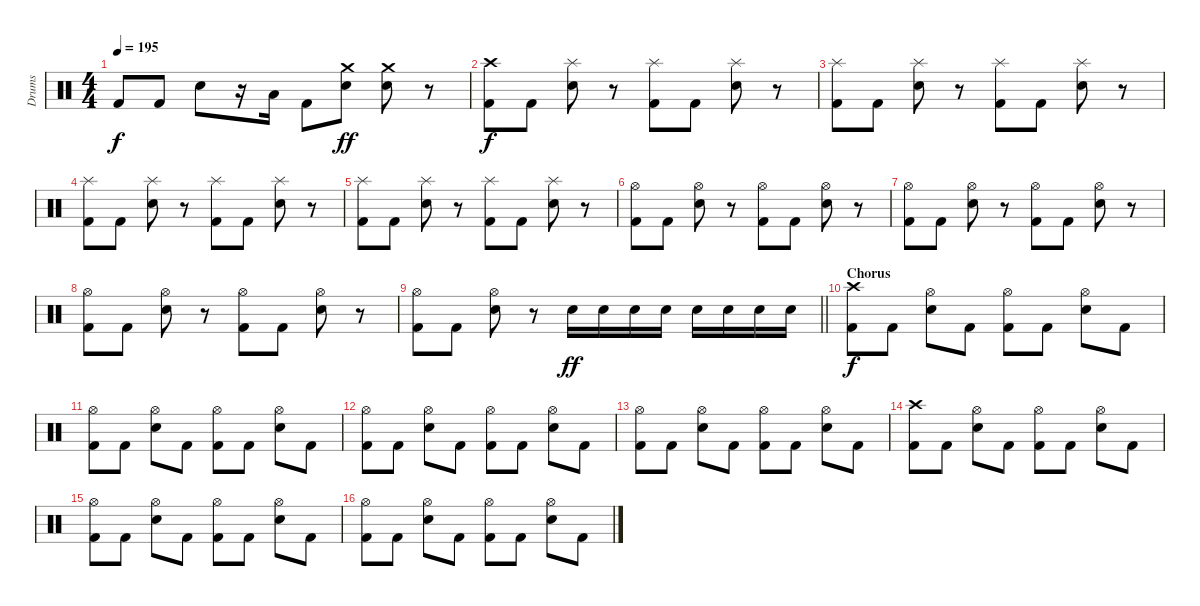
\track ("Drums" "Drums") {instrument percussion}
\staff {score}
\articulation defaults
\ts (4 4)
\tempo 195
\clef neutral
\ks c "Kick (hit) 2".8{dy f} "Kick (hit) 2".8 "Electric Snare (hit)".8
r.16 "Low Tom (hit)".16 "Kick (hit) 2".8 ("Crash medium (hit)" "Electric Snare (hit)").8{dy ff} ("Crash medium (hit)" "Electric Snare (hit)").8 r.8 |
("Crash high (hit)" "Kick (hit) 2").8{dy f} "Kick (hit) 2".8 ("Splash (hit)" "Electric Snare (hit)").8 r.8 ("Splash (hit)" "Kick (hit) 2").8 "Kick (hit) 2".8 ("Splash (hit)" "Electric Snare (hit)").8 r.8 |
("Splash (hit)" "Kick (hit) 2").8 "Kick (hit) 2".8 ("Splash (hit)" "Electric Snare (hit)").8 r.8 ("Splash (hit)" "Kick (hit) 2").8 "Kick (hit) 2".8 ("Splash (hit)" "Electric Snare (hit)").8 r.8 |
("Splash (hit)" "Kick (hit) 2").8 "Kick (hit) 2".8 ("Splash (hit)" "Electric Snare (hit)").8 r.8 ("Splash (hit)" "Kick (hit) 2").8 "Kick (hit) 2".8 ("Splash (hit)" "Electric Snare (hit)").8 r.8 |
("Splash (hit)" "Kick (hit) 2").8 "Kick (hit) 2".8 ("Splash (hit)" "Electric Snare (hit)").8 r.8 ("Splash (hit)" "Kick (hit) 2").8 "Kick (hit) 2".8 ("Splash (hit)" "Electric Snare (hit)").8 r.8 |
("Hi-Hat (open)" "Kick (hit) 2").8 "Kick (hit) 2".8 ("Hi-Hat (open)" "Electric Snare (hit)").8 r.8 ("Hi-Hat (open)" "Kick (hit) 2").8 "Kick (hit) 2".8 ("Hi-Hat (open)" "Electric Snare (hit)").8 r.8 |
("Hi-Hat (open)" "Kick (hit) 2").8 "Kick (hit) 2".8 ("Hi-Hat (open)" "Electric Snare (hit)").8 r.8 ("Hi-Hat (open)" "Kick (hit) 2").8 "Kick (hit) 2".8 ("Hi-Hat (open)" "Electric Snare (hit)").8 r.8 |
("Hi-Hat (open)" "Kick (hit) 2").8 "Kick (hit) 2".8 ("Hi-Hat (open)" "Electric Snare (hit)").8 r.8 ("Hi-Hat (open)" "Kick (hit) 2").8 "Kick (hit) 2".8 ("Hi-Hat (open)" "Electric Snare (hit)").8 r.8 |
\barLineRight lightlight
("Hi-Hat (open)" "Kick (hit) 2").8 "Kick (hit) 2".8 ("Hi-Hat (open)" "Electric Snare (hit)").8 r.8 "Electric Snare (hit)".16{dy ff} "Electric Snare (hit)".16 "Electric Snare (hit)".16 "Electric Snare (hit)".16 "Electric Snare (hit)".16 "Electric Snare (hit)".16 "Electric Snare (hit)".16 "Electric Snare (hit)".16 |
\section ("" "Chorus")
("Crash high (hit)" "Kick (hit) 2").8{dy f} "Kick (hit) 2".8 ("Hi-Hat (open)" "Electric Snare (hit)").8 "Kick (hit) 2".8 ("Hi-Hat (open)" "Kick (hit) 2").8 "Kick (hit) 2".8 ("Hi-Hat (open)" "Electric Snare (hit)").8 "Kick (hit) 2".8 |
("Hi-Hat (open)" "Kick (hit) 2").8 "Kick (hit) 2".8 ("Hi-Hat (open)" "Electric Snare (hit)").8 "Kick (hit) 2".8 ("Hi-Hat (open)" "Kick (hit) 2").8 "Kick (hit) 2".8 ("Hi-Hat (open)" "Electric Snare (hit)").8 "Kick (hit) 2".8 |
("Hi-Hat (open)" "Kick (hit) 2").8 "Kick (hit) 2".8 ("Hi-Hat (open)" "Electric Snare (hit)").8 "Kick (hit) 2".8 ("Hi-Hat (open)" "Kick (hit) 2").8 "Kick (hit) 2".8 ("Hi-Hat (open)" "Electric Snare (hit)").8 "Kick (hit) 2".8 |
("Hi-Hat (open)" "Kick (hit) 2").8 "Kick (hit) 2".8 ("Hi-Hat (open)" "Electric Snare (hit)").8 "Kick (hit) 2".8 ("Hi-Hat (open)" "Kick (hit) 2").8 "Kick (hit) 2".8 ("Hi-Hat (open)" "Electric Snare (hit)").8 "Kick (hit) 2".8 |
("Crash high (hit)" "Kick (hit) 2").8 "Kick (hit) 2".8 ("Hi-Hat (open)" "Electric Snare (hit)").8 "Kick (hit) 2".8 ("Hi-Hat (open)" "Kick (hit) 2").8 "Kick (hit) 2".8 ("Hi-Hat (open)" "Electric Snare (hit)").8 "Kick (hit) 2".8 |
("Hi-Hat (open)" "Kick (hit) 2").8 "Kick (hit) 2".8 ("Hi-Hat (open)" "Electric Snare (hit)").8 "Kick (hit) 2".8 ("Hi-Hat (open)" "Kick (hit) 2").8 "Kick (hit) 2".8 ("Hi-Hat (open)" "Electric Snare (hit)").8 "Kick (hit) 2".8 |
("Hi-Hat (open)" "Kick (hit) 2").8 "Kick (hit) 2".8 ("Hi-Hat (open)" "Electric Snare (hit)").8 "Kick (hit) 2".8 ("Hi-Hat (open)" "Kick (hit) 2").8 "Kick (hit) 2".8 ("Hi-Hat (open)" "Electric Snare (hit)").8 "Kick (hit) 2".8
